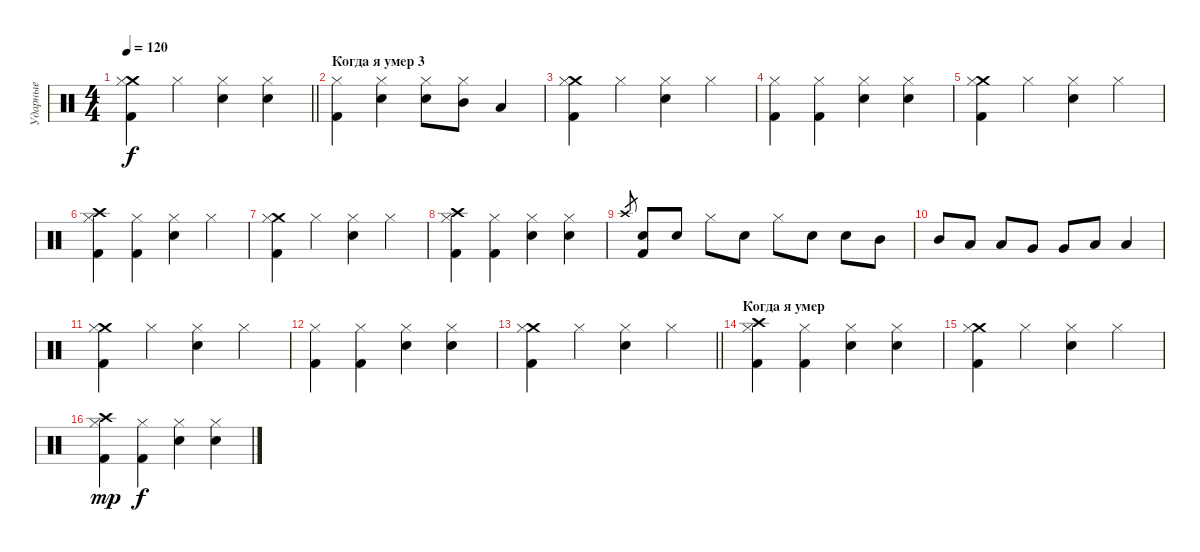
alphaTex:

\track ("Ударные" "Ударные") {instrument percussion}
\staff {score}
\articulation defaults
\ts (4 4)
\tempo 120
\clef neutral
\barLineRight lightlight
\ks c
("Crash medium (hit)" "Hi-Hat (closed)" "Kick (hit) 2").4{dy f} "Hi-Hat (closed)".4 ("Snare (hit) 2" "Hi-Hat (closed)").4 ("Snare (hit) 2" "Hi-Hat (closed)").4 |
\section ("" "Когда я умер 3")
("Hi-Hat (closed)" "Kick (hit) 2").4 ("Snare (hit) 2" "Hi-Hat (closed)").4 ("Snare (hit) 2" "Hi-Hat (closed)").8 ("Mid Tom (hit)" "Hi-Hat (closed)").8 "Low Tom (hit)".4 |
("Crash medium (hit)" "Hi-Hat (closed)" "Kick (hit) 2").4 "Hi-Hat (closed)".4 ("Snare (hit) 2" "Hi-Hat (closed)").4 "Hi-Hat (closed)".4 |
("Hi-Hat (closed)" "Kick (hit) 2").4 ("Hi-Hat (closed)" "Kick (hit) 2").4 ("Snare (hit) 2" "Hi-Hat (closed)").4 ("Snare (hit) 2" "Hi-Hat (closed)").4 |
("Crash medium (hit)" "Hi-Hat (closed)" "Kick (hit) 2").4 "Hi-Hat (closed)".4 ("Snare (hit) 2" "Hi-Hat (closed)").4 "Hi-Hat (closed)".4 |
("Crash high (hit)" "Hi-Hat (closed)" "Kick (hit) 2").4 ("Hi-Hat (closed)" "Kick (hit) 2").4 ("Snare (hit) 2" "Hi-Hat (closed)").4 "Hi-Hat (closed)".4 |
("Crash medium (hit)" "Hi-Hat (closed)" "Kick (hit) 2").4 "Hi-Hat (closed)".4 ("Snare (hit) 2" "Hi-Hat (closed)").4 "Hi-Hat (closed)".4 |
("Crash high (hit)" "Hi-Hat (closed)" "Kick (hit) 2").4 ("Hi-Hat (closed)" "Kick (hit) 2").4 ("Snare (hit) 2" "Hi-Hat (closed)").4 ("Snare (hit) 2" "Hi-Hat (closed)").4 |
"Crash high (hit)".8{gr} ("Snare (hit) 2" "Kick (hit) 2").8 "Snare (hit) 2".8 "Hi-Hat (closed)".8 "Snare (hit) 2".8 "Hi-Hat (closed)".8 "Snare (hit) 2".8 "Snare (hit) 2".8 "Mid Tom (hit)".8 |
"Mid Tom (hit)".8 "Low Tom (hit)".8 "Low Tom (hit)".8 "Very Low Tom (hit)".8 "Very Low Tom (hit)".8 "Low Floor Tom (hit)".8 "Low Floor Tom (hit)".4 |
("Crash medium (hit)" "Hi-Hat (closed)" "Kick (hit) 2").4 "Hi-Hat (closed)".4 ("Snare (hit) 2" "Hi-Hat (closed)").4 "Hi-Hat (closed)".4 |
("Hi-Hat (closed)" "Kick (hit) 2").4 ("Hi-Hat (closed)" "Kick (hit) 2").4 ("Snare (hit) 2" "Hi-Hat (closed)").4 ("Snare (hit) 2" "Hi-Hat (closed)").4 |
\barLineRight lightlight
("Crash medium (hit)" "Hi-Hat (closed)" "Kick (hit) 2").4 "Hi-Hat (closed)".4 ("Snare (hit) 2" "Hi-Hat (closed)").4 "Hi-Hat (closed)".4 |
\section ("" "Когда я умер")
("Crash high (hit)" "Hi-Hat (closed)" "Kick (hit) 2").4 ("Hi-Hat (closed)" "Kick (hit) 2").4 ("Snare (hit) 2" "Hi-Hat (closed)").4 ("Snare (hit) 2" "Hi-Hat (closed)").4 |
("Crash medium (hit)" "Hi-Hat (closed)" "Kick (hit) 2").4 "Hi-Hat (closed)".4 ("Snare (hit) 2" "Hi-Hat (closed)").4 "Hi-Hat (closed)".4 |
("Crash high (hit)" "Hi-Hat (closed)" "Kick (hit) 2").4{dy mp} ("Hi-Hat (closed)" "Kick (hit) 2").4{dy f} ("Snare (hit) 2" "Hi-Hat (closed)").4 ("Snare (hit) 2" "Hi-Hat (closed)").4
